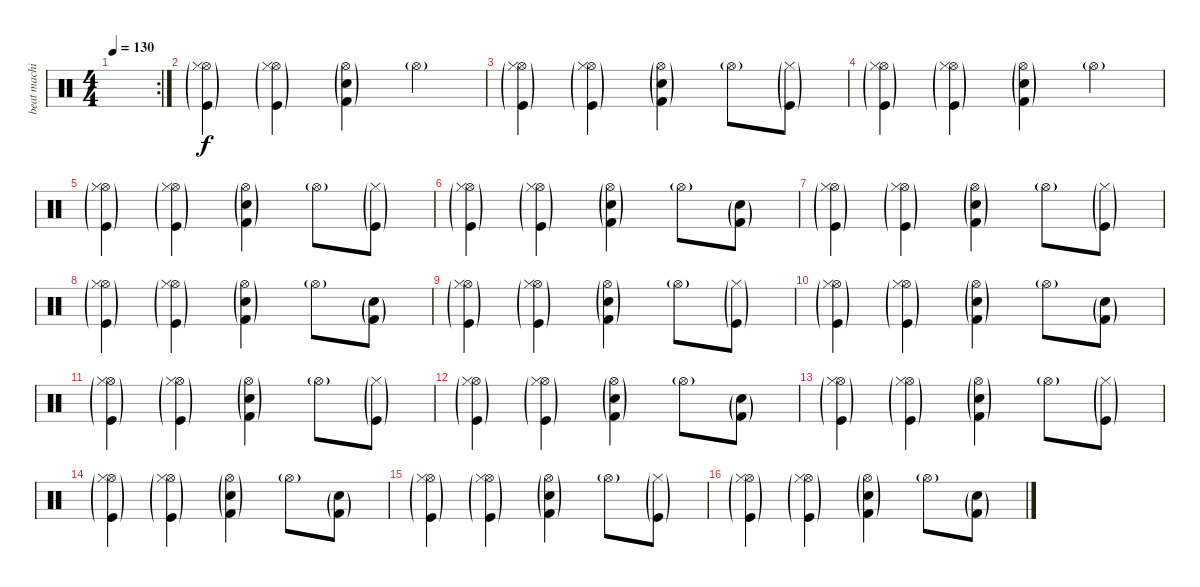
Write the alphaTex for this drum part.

\track ("beat machine" "beat machi") {instrument percussion}
\staff {score}
\articulation defaults
\rc 2
\ts (4 4)
\tempo 130
\clef neutral
\ks c
|
("Hi-Hat (open)"{g} "Hi-Hat (closed)"{g} "Kick (hit)"{g}).4 ("Hi-Hat (open)"{g} "Hi-Hat (closed)"{g} "Kick (hit)"{g}).4 ("Hi-Hat (open)"{g} "Kick (hit) 2"{g} "Snare (hit) 2"{g}).4 "Hi-Hat (open)"{g}.4 |
("Hi-Hat (open)"{g} "Hi-Hat (closed)"{g} "Kick (hit)"{g}).4 ("Hi-Hat (open)"{g} "Hi-Hat (closed)"{g} "Kick (hit)"{g}).4 ("Hi-Hat (open)"{g} "Kick (hit) 2"{g} "Snare (hit) 2"{g}).4 "Hi-Hat (open)"{g}.8 ("Hi-Hat (closed)"{g} "Kick (hit)"{g}).8 |
("Hi-Hat (open)"{g} "Hi-Hat (closed)"{g} "Kick (hit)"{g}).4 ("Hi-Hat (open)"{g} "Hi-Hat (closed)"{g} "Kick (hit)"{g}).4 ("Hi-Hat (open)"{g} "Kick (hit) 2"{g} "Snare (hit) 2"{g}).4 "Hi-Hat (open)"{g}.4 |
("Hi-Hat (open)"{g} "Hi-Hat (closed)"{g} "Kick (hit)"{g}).4 ("Hi-Hat (open)"{g} "Hi-Hat (closed)"{g} "Kick (hit)"{g}).4 ("Hi-Hat (open)"{g} "Kick (hit) 2"{g} "Snare (hit) 2"{g}).4 "Hi-Hat (open)"{g}.8 ("Hi-Hat (closed)"{g} "Kick (hit)"{g}).8 |
("Hi-Hat (open)"{g} "Hi-Hat (closed)"{g} "Kick (hit)"{g}).4 ("Hi-Hat (open)"{g} "Hi-Hat (closed)"{g} "Kick (hit)"{g}).4 ("Hi-Hat (open)"{g} "Kick (hit) 2"{g} "Snare (hit) 2"{g}).4 "Hi-Hat (open)"{g}.8 ("Kick (hit) 2"{g} "Snare (hit) 2"{g}).8 |
("Hi-Hat (open)"{g} "Hi-Hat (closed)"{g} "Kick (hit)"{g}).4 ("Hi-Hat (open)"{g} "Hi-Hat (closed)"{g} "Kick (hit)"{g}).4 ("Hi-Hat (open)"{g} "Kick (hit) 2"{g} "Snare (hit) 2"{g}).4 "Hi-Hat (open)"{g}.8 ("Hi-Hat (closed)"{g} "Kick (hit)"{g}).8 |
("Hi-Hat (open)"{g} "Hi-Hat (closed)"{g} "Kick (hit)"{g}).4 ("Hi-Hat (open)"{g} "Hi-Hat (closed)"{g} "Kick (hit)"{g}).4 ("Hi-Hat (open)"{g} "Kick (hit) 2"{g} "Snare (hit) 2"{g}).4 "Hi-Hat (open)"{g}.8 ("Kick (hit) 2"{g} "Snare (hit) 2"{g}).8 |
("Hi-Hat (open)"{g} "Hi-Hat (closed)"{g} "Kick (hit)"{g}).4 ("Hi-Hat (open)"{g} "Hi-Hat (closed)"{g} "Kick (hit)"{g}).4 ("Hi-Hat (open)"{g} "Kick (hit) 2"{g} "Snare (hit) 2"{g}).4 "Hi-Hat (open)"{g}.8 ("Hi-Hat (closed)"{g} "Kick (hit)"{g}).8 |
("Hi-Hat (open)"{g} "Hi-Hat (closed)"{g} "Kick (hit)"{g}).4 ("Hi-Hat (open)"{g} "Hi-Hat (closed)"{g} "Kick (hit)"{g}).4 ("Hi-Hat (open)"{g} "Kick (hit) 2"{g} "Snare (hit) 2"{g}).4 "Hi-Hat (open)"{g}.8 ("Kick (hit) 2"{g} "Snare (hit) 2"{g}).8 |
("Hi-Hat (open)"{g} "Hi-Hat (closed)"{g} "Kick (hit)"{g}).4 ("Hi-Hat (open)"{g} "Hi-Hat (closed)"{g} "Kick (hit)"{g}).4 ("Hi-Hat (open)"{g} "Kick (hit) 2"{g} "Snare (hit) 2"{g}).4 "Hi-Hat (open)"{g}.8 ("Hi-Hat (closed)"{g} "Kick (hit)"{g}).8 |
("Hi-Hat (open)"{g} "Hi-Hat (closed)"{g} "Kick (hit)"{g}).4 ("Hi-Hat (open)"{g} "Hi-Hat (closed)"{g} "Kick (hit)"{g}).4 ("Hi-Hat (open)"{g} "Kick (hit) 2"{g} "Snare (hit) 2"{g}).4 "Hi-Hat (open)"{g}.8 ("Kick (hit) 2"{g} "Snare (hit) 2"{g}).8 |
("Hi-Hat (open)"{g} "Hi-Hat (closed)"{g} "Kick (hit)"{g}).4 ("Hi-Hat (open)"{g} "Hi-Hat (closed)"{g} "Kick (hit)"{g}).4 ("Hi-Hat (open)"{g} "Kick (hit) 2"{g} "Snare (hit) 2"{g}).4 "Hi-Hat (open)"{g}.8 ("Hi-Hat (closed)"{g} "Kick (hit)"{g}).8 |
("Hi-Hat (open)"{g} "Hi-Hat (closed)"{g} "Kick (hit)"{g}).4 ("Hi-Hat (open)"{g} "Hi-Hat (closed)"{g} "Kick (hit)"{g}).4 ("Hi-Hat (open)"{g} "Kick (hit) 2"{g} "Snare (hit) 2"{g}).4 "Hi-Hat (open)"{g}.8 ("Kick (hit) 2"{g} "Snare (hit) 2"{g}).8 |
("Hi-Hat (open)"{g} "Hi-Hat (closed)"{g} "Kick (hit)"{g}).4 ("Hi-Hat (open)"{g} "Hi-Hat (closed)"{g} "Kick (hit)"{g}).4 ("Hi-Hat (open)"{g} "Kick (hit) 2"{g} "Snare (hit) 2"{g}).4 "Hi-Hat (open)"{g}.8 ("Hi-Hat (closed)"{g} "Kick (hit)"{g}).8 |
("Hi-Hat (open)"{g} "Hi-Hat (closed)"{g} "Kick (hit)"{g}).4 ("Hi-Hat (open)"{g} "Hi-Hat (closed)"{g} "Kick (hit)"{g}).4 ("Hi-Hat (open)"{g} "Kick (hit) 2"{g} "Snare (hit) 2"{g}).4 "Hi-Hat (open)"{g}.8 ("Kick (hit) 2"{g} "Snare (hit) 2"{g}).8
